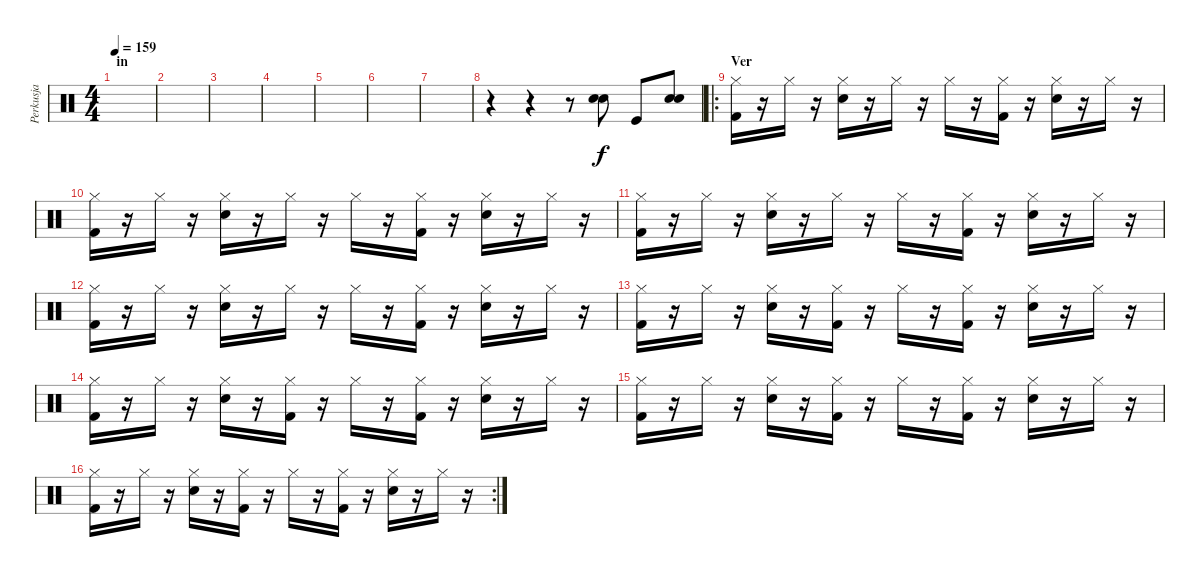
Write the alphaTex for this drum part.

\track ("Perkusja" "Perkusja") {instrument percussion}
\staff {score}
\articulation defaults
\ts (4 4)
\section ("" "in")
\tempo 159
\clef neutral
\ks c
|
|
|
|
|
|
|
r.4 r.4 r.8 ("Electric Snare (hit)" "Snare (hit) 2").8 "Kick (hit)".8 ("Electric Snare (hit)" "Snare (hit) 2").8 |
\ro
\section ("" "Ver")
("Hi-Hat (closed)" "Kick (hit) 2").16 r.16 "Hi-Hat (closed)".16 r.16 ("Hi-Hat (closed)" "Electric Snare (hit)").16 r.16 "Hi-Hat (closed)".16 r.16 "Hi-Hat (closed)".16 r.16 ("Hi-Hat (closed)" "Kick (hit) 2").16 r.16 ("Hi-Hat (closed)" "Electric Snare (hit)").16 r.16 "Hi-Hat (closed)".16 r.16 |
("Hi-Hat (closed)" "Kick (hit) 2").16 r.16 "Hi-Hat (closed)".16 r.16 ("Hi-Hat (closed)" "Electric Snare (hit)").16 r.16 "Hi-Hat (closed)".16 r.16 "Hi-Hat (closed)".16 r.16 ("Hi-Hat (closed)" "Kick (hit) 2").16 r.16 ("Hi-Hat (closed)" "Electric Snare (hit)").16 r.16 "Hi-Hat (closed)".16 r.16 |
("Hi-Hat (closed)" "Kick (hit) 2").16 r.16 "Hi-Hat (closed)".16 r.16 ("Hi-Hat (closed)" "Electric Snare (hit)").16 r.16 "Hi-Hat (closed)".16 r.16 "Hi-Hat (closed)".16 r.16 ("Hi-Hat (closed)" "Kick (hit) 2").16 r.16 ("Hi-Hat (closed)" "Electric Snare (hit)").16 r.16 "Hi-Hat (closed)".16 r.16 |
("Hi-Hat (closed)" "Kick (hit) 2").16 r.16 "Hi-Hat (closed)".16 r.16 ("Hi-Hat (closed)" "Electric Snare (hit)").16 r.16 "Hi-Hat (closed)".16 r.16 "Hi-Hat (closed)".16 r.16 ("Hi-Hat (closed)" "Kick (hit) 2").16 r.16 ("Hi-Hat (closed)" "Electric Snare (hit)").16 r.16 "Hi-Hat (closed)".16 r.16 |
("Hi-Hat (closed)" "Kick (hit) 2").16 r.16 "Hi-Hat (closed)".16 r.16 ("Hi-Hat (closed)" "Electric Snare (hit)").16 r.16 ("Hi-Hat (closed)" "Kick (hit) 2").16 r.16 "Hi-Hat (closed)".16 r.16 ("Hi-Hat (closed)" "Kick (hit) 2").16 r.16 ("Hi-Hat (closed)" "Electric Snare (hit)").16 r.16 "Hi-Hat (closed)".16 r.16 |
("Hi-Hat (closed)" "Kick (hit) 2").16 r.16 "Hi-Hat (closed)".16 r.16 ("Hi-Hat (closed)" "Electric Snare (hit)").16 r.16 ("Hi-Hat (closed)" "Kick (hit) 2").16 r.16 "Hi-Hat (closed)".16 r.16 ("Hi-Hat (closed)" "Kick (hit) 2").16 r.16 ("Hi-Hat (closed)" "Electric Snare (hit)").16 r.16 "Hi-Hat (closed)".16 r.16 |
("Hi-Hat (closed)" "Kick (hit) 2").16 r.16 "Hi-Hat (closed)".16 r.16 ("Hi-Hat (closed)" "Electric Snare (hit)").16 r.16 ("Hi-Hat (closed)" "Kick (hit) 2").16 r.16 "Hi-Hat (closed)".16 r.16 ("Hi-Hat (closed)" "Kick (hit) 2").16 r.16 ("Hi-Hat (closed)" "Electric Snare (hit)").16 r.16 "Hi-Hat (closed)".16 r.16 |
\rc 2
("Hi-Hat (closed)" "Kick (hit) 2").16 r.16 "Hi-Hat (closed)".16 r.16 ("Hi-Hat (closed)" "Electric Snare (hit)").16 r.16 ("Hi-Hat (closed)" "Kick (hit) 2").16 r.16 "Hi-Hat (closed)".16 r.16 ("Hi-Hat (closed)" "Kick (hit) 2").16 r.16 ("Hi-Hat (closed)" "Electric Snare (hit)").16 r.16 "Hi-Hat (closed)".16 r.16
